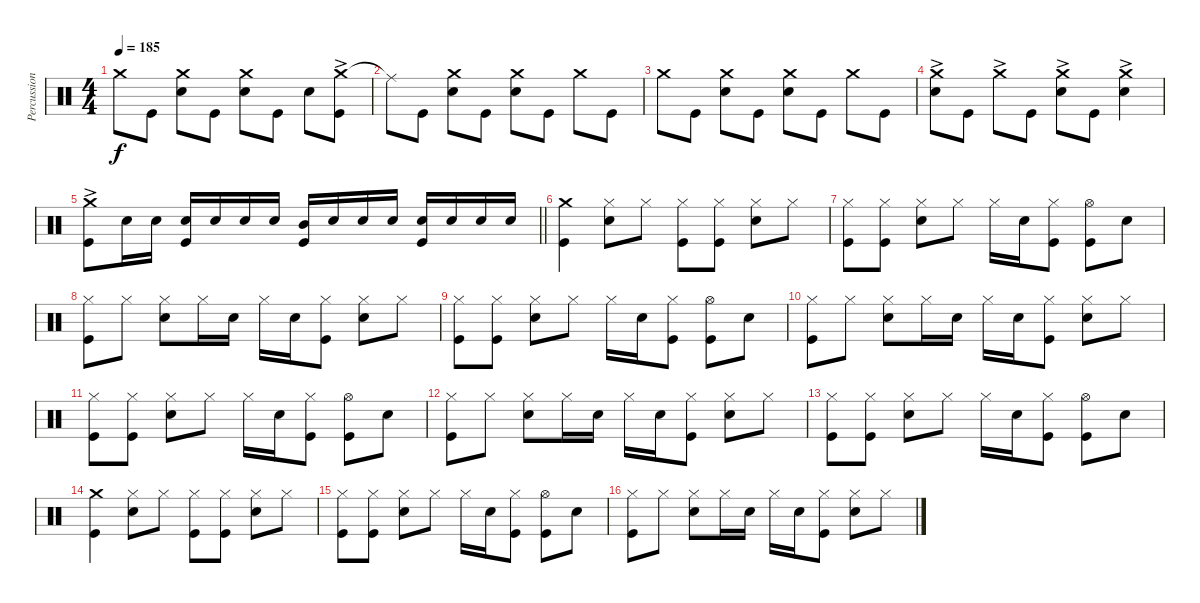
\track ("Percussion" "Percussion") {instrument percussion}
\staff {score}
\articulation defaults
\ts (4 4)
\tempo 185
\clef neutral
\ks c "Crash medium (hit)".8{dy f} "Kick (hit)".8
("Crash medium (hit)" "Electric Snare (hit)").8 "Kick (hit)".8 ("Crash medium (hit)" "Electric Snare (hit)").8 "Kick (hit)".8 "Electric Snare (hit)".8 ("Crash medium (hit)"{ac} "Kick (hit)").8 |
"Ride (middle)"{t}.8 "Kick (hit)".8 ("Crash medium (hit)" "Electric Snare (hit)").8 "Kick (hit)".8 ("Crash medium (hit)" "Electric Snare (hit)").8 "Kick (hit)".8 "Crash medium (hit)".8 "Kick (hit)".8 |
"Crash medium (hit)".8 "Kick (hit)".8 ("Crash medium (hit)" "Electric Snare (hit)").8 "Kick (hit)".8 ("Crash medium (hit)" "Electric Snare (hit)").8 "Kick (hit)".8 "Crash medium (hit)".8 "Kick (hit)".8 |
("Crash medium (hit)"{ac} "Electric Snare (hit)").8 "Kick (hit)".8 "Crash medium (hit)"{ac}.8 "Kick (hit)".8 ("Crash medium (hit)"{ac} "Electric Snare (hit)").8 "Kick (hit)".8 ("Crash medium (hit)"{ac} "Electric Snare (hit)").4 |
\barLineRight lightlight
("Crash medium (hit)"{ac} "Kick (hit)").8 "Electric Snare (hit)".16 "Electric Snare (hit)".16 ("Electric Snare (hit)" "Kick (hit)").16 "Electric Snare (hit)".16 "Electric Snare (hit)".16 "Electric Snare (hit)".16 ("Mid Tom (hit)" "Kick (hit)").16 "Electric Snare (hit)".16 "Electric Snare (hit)".16 "Electric Snare (hit)".16 ("Electric Snare (hit)" "Kick (hit)").16 "Electric Snare (hit)".16 "Electric Snare (hit)".16 "Electric Snare (hit)".16 |
("Crash medium (hit)" "Kick (hit)").4 ("Hi-Hat (closed)" "Electric Snare (hit)").8 "Hi-Hat (closed)".8 ("Hi-Hat (closed)" "Kick (hit)").8 ("Hi-Hat (closed)" "Kick (hit)").8 ("Hi-Hat (closed)" "Electric Snare (hit)").8 "Hi-Hat (closed)".8 |
("Hi-Hat (closed)" "Kick (hit)").8 ("Hi-Hat (closed)" "Kick (hit)").8 ("Hi-Hat (closed)" "Electric Snare (hit)").8 "Hi-Hat (closed)".8 "Hi-Hat (closed)".16 "Electric Snare (hit)".16 ("Hi-Hat (closed)" "Kick (hit)").8 ("Hi-Hat (open)" "Kick (hit)").8 "Electric Snare (hit)".8 |
("Hi-Hat (closed)" "Kick (hit)").8 "Hi-Hat (closed)".8 ("Hi-Hat (closed)" "Electric Snare (hit)").8 "Hi-Hat (closed)".16 "Electric Snare (hit)".16 "Hi-Hat (closed)".16 "Electric Snare (hit)".16 ("Hi-Hat (closed)" "Kick (hit)").8 ("Hi-Hat (closed)" "Electric Snare (hit)").8 "Hi-Hat (closed)".8 |
("Hi-Hat (closed)" "Kick (hit)").8 ("Hi-Hat (closed)" "Kick (hit)").8 ("Hi-Hat (closed)" "Electric Snare (hit)").8 "Hi-Hat (closed)".8 "Hi-Hat (closed)".16 "Electric Snare (hit)".16 ("Hi-Hat (closed)" "Kick (hit)").8 ("Hi-Hat (open)" "Kick (hit)").8 "Electric Snare (hit)".8 |
("Hi-Hat (closed)" "Kick (hit)").8 "Hi-Hat (closed)".8 ("Hi-Hat (closed)" "Electric Snare (hit)").8 "Hi-Hat (closed)".16 "Electric Snare (hit)".16 "Hi-Hat (closed)".16 "Electric Snare (hit)".16 ("Hi-Hat (closed)" "Kick (hit)").8 ("Hi-Hat (closed)" "Electric Snare (hit)").8 "Hi-Hat (closed)".8 |
("Hi-Hat (closed)" "Kick (hit)").8 ("Hi-Hat (closed)" "Kick (hit)").8 ("Hi-Hat (closed)" "Electric Snare (hit)").8 "Hi-Hat (closed)".8 "Hi-Hat (closed)".16 "Electric Snare (hit)".16 ("Hi-Hat (closed)" "Kick (hit)").8 ("Hi-Hat (open)" "Kick (hit)").8 "Electric Snare (hit)".8 |
("Hi-Hat (closed)" "Kick (hit)").8 "Hi-Hat (closed)".8 ("Hi-Hat (closed)" "Electric Snare (hit)").8 "Hi-Hat (closed)".16 "Electric Snare (hit)".16 "Hi-Hat (closed)".16 "Electric Snare (hit)".16 ("Hi-Hat (closed)" "Kick (hit)").8 ("Hi-Hat (closed)" "Electric Snare (hit)").8 "Hi-Hat (closed)".8 |
("Hi-Hat (closed)" "Kick (hit)").8 ("Hi-Hat (closed)" "Kick (hit)").8 ("Hi-Hat (closed)" "Electric Snare (hit)").8 "Hi-Hat (closed)".8 "Hi-Hat (closed)".16 "Electric Snare (hit)".16 ("Hi-Hat (closed)" "Kick (hit)").8 ("Hi-Hat (open)" "Kick (hit)").8 "Electric Snare (hit)".8 |
("Crash medium (hit)" "Kick (hit)").4 ("Hi-Hat (closed)" "Electric Snare (hit)").8 "Hi-Hat (closed)".8 ("Hi-Hat (closed)" "Kick (hit)").8 ("Hi-Hat (closed)" "Kick (hit)").8 ("Hi-Hat (closed)" "Electric Snare (hit)").8 "Hi-Hat (closed)".8 |
("Hi-Hat (closed)" "Kick (hit)").8 ("Hi-Hat (closed)" "Kick (hit)").8 ("Hi-Hat (closed)" "Electric Snare (hit)").8 "Hi-Hat (closed)".8 "Hi-Hat (closed)".16 "Electric Snare (hit)".16 ("Hi-Hat (closed)" "Kick (hit)").8 ("Hi-Hat (open)" "Kick (hit)").8 "Electric Snare (hit)".8 |
("Hi-Hat (closed)" "Kick (hit)").8 "Hi-Hat (closed)".8 ("Hi-Hat (closed)" "Electric Snare (hit)").8 "Hi-Hat (closed)".16 "Electric Snare (hit)".16 "Hi-Hat (closed)".16 "Electric Snare (hit)".16 ("Hi-Hat (closed)" "Kick (hit)").8 ("Hi-Hat (closed)" "Electric Snare (hit)").8 "Hi-Hat (closed)".8
